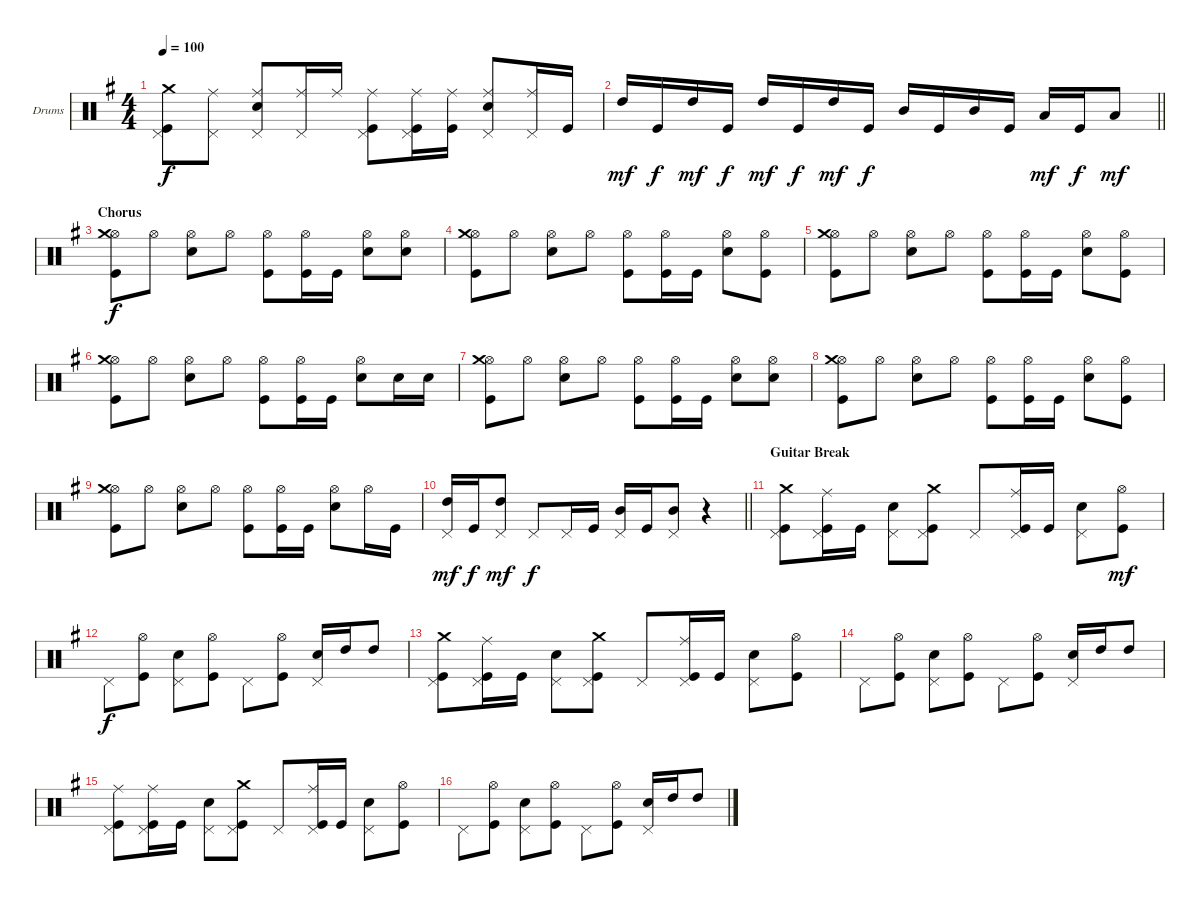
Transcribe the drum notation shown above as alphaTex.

\bracketExtendMode groupsimilarinstruments
\firstSystemTrackNameOrientation horizontal
\otherSystemsTrackNameOrientation horizontal
\track ("Барабаны" "Drums") {instrument percussion}
\staff {score}
\articulation defaults
\ts (4 4)
\tempo 100
\clef neutral
\ks eminor
("Crash medium (hit)" "Kick (hit)" "Pedal Hi-Hat (hit)").8{dy f} ("Pedal Hi-Hat (hit)" "Ride (middle)").8 ("Ride (middle)" "Snare (hit) 2" "Pedal Hi-Hat (hit)").8 ("Ride (middle)" "Pedal Hi-Hat (hit)").16 "Ride (middle)".16 ("Ride (middle)" "Kick (hit)" "Pedal Hi-Hat (hit)").8 ("Ride (middle)" "Pedal Hi-Hat (hit)" "Kick (hit)").16 ("Ride (middle)" "Kick (hit)").16 ("Ride (middle)" "Snare (hit) 2" "Pedal Hi-Hat (hit)").8 ("Ride (middle)" "Pedal Hi-Hat (hit)").16 "Kick (hit)".16 |
\barLineRight lightlight "High Tom (hit)".16{dy mf} "Kick (hit)".16{dy f} "High Tom (hit)".16{dy mf} "Kick (hit)".16{dy f} "High Tom (hit)".16{dy mf} "Kick (hit)".16{dy f} "High Tom (hit)".16{dy mf} "Kick (hit)".16{dy f} "Mid Tom (hit)".16 "Kick (hit)".16 "Mid Tom (hit)".16 "Kick (hit)".16 "Low Tom (hit)".16{dy mf} "Kick (hit)".16{dy f} "Low Tom (hit)".8{dy mf}
|
\section ("" "Chorus")
("Hi-Hat (open)" "Crash medium (hit)" "Kick (hit)").8{dy f} "Hi-Hat (open)".8 ("Hi-Hat (open)" "Snare (hit) 2").8 "Hi-Hat (open)".8 ("Hi-Hat (open)" "Kick (hit)").8 ("Hi-Hat (open)" "Kick (hit)").16 "Kick (hit)".16 ("Hi-Hat (open)" "Snare (hit) 2").8 ("Hi-Hat (open)" "Snare (hit) 2").8 |
("Hi-Hat (open)" "Crash medium (hit)" "Kick (hit)").8 "Hi-Hat (open)".8 ("Hi-Hat (open)" "Snare (hit) 2").8 "Hi-Hat (open)".8 ("Hi-Hat (open)" "Kick (hit)").8 ("Hi-Hat (open)" "Kick (hit)").16 "Kick (hit)".16 ("Hi-Hat (open)" "Snare (hit) 2").8 ("Hi-Hat (open)" "Kick (hit)").8 |
("Hi-Hat (open)" "Crash medium (hit)" "Kick (hit)").8 "Hi-Hat (open)".8 ("Hi-Hat (open)" "Snare (hit) 2").8 "Hi-Hat (open)".8 ("Hi-Hat (open)" "Kick (hit)").8 ("Hi-Hat (open)" "Kick (hit)").16 "Kick (hit)".16 ("Hi-Hat (open)" "Snare (hit) 2").8 ("Hi-Hat (open)" "Kick (hit)").8 |
("Hi-Hat (open)" "Crash medium (hit)" "Kick (hit)").8 "Hi-Hat (open)".8 ("Hi-Hat (open)" "Snare (hit) 2").8 "Hi-Hat (open)".8 ("Hi-Hat (open)" "Kick (hit)").8 ("Hi-Hat (open)" "Kick (hit)").16 "Kick (hit)".16 ("Hi-Hat (open)" "Snare (hit) 2").8 "Snare (hit) 2".16 "Snare (hit) 2".16 |
("Hi-Hat (open)" "Crash medium (hit)" "Kick (hit)").8 "Hi-Hat (open)".8 ("Hi-Hat (open)" "Snare (hit) 2").8 "Hi-Hat (open)".8 ("Hi-Hat (open)" "Kick (hit)").8 ("Hi-Hat (open)" "Kick (hit)").16 "Kick (hit)".16 ("Hi-Hat (open)" "Snare (hit) 2").8 ("Hi-Hat (open)" "Snare (hit) 2").8 |
("Hi-Hat (open)" "Crash medium (hit)" "Kick (hit)").8 "Hi-Hat (open)".8 ("Hi-Hat (open)" "Snare (hit) 2").8 "Hi-Hat (open)".8 ("Hi-Hat (open)" "Kick (hit)").8 ("Hi-Hat (open)" "Kick (hit)").16 "Kick (hit)".16 ("Hi-Hat (open)" "Snare (hit) 2").8 ("Hi-Hat (open)" "Kick (hit)").8 |
("Hi-Hat (open)" "Crash medium (hit)" "Kick (hit)").8 "Hi-Hat (open)".8 ("Hi-Hat (open)" "Snare (hit) 2").8 "Hi-Hat (open)".8 ("Hi-Hat (open)" "Kick (hit)").8 ("Hi-Hat (open)" "Kick (hit)").16 "Kick (hit)".16 ("Hi-Hat (open)" "Snare (hit) 2").8 "Hi-Hat (open)".16 "Kick (hit)".16 |
\barLineRight lightlight
("High Tom (hit)" "Pedal Hi-Hat (hit)").16{dy mf} "Kick (hit)".16{dy f} ("Pedal Hi-Hat (hit)" "High Tom (hit)").8{dy mf} "Pedal Hi-Hat (hit)".8{dy f} "Pedal Hi-Hat (hit)".16 "Kick (hit)".16 ("Mid Tom (hit)" "Pedal Hi-Hat (hit)").16 "Kick (hit)".16 ("Mid Tom (hit)" "Pedal Hi-Hat (hit)").8 r.4 |
\section ("" "Guitar Break")
("Kick (hit)" "Crash medium (hit)" "Pedal Hi-Hat (hit)").8 ("Kick (hit)" "Pedal Hi-Hat (hit)" "Ride (middle)").16 "Kick (hit)".16 ("Snare (hit) 2" "Pedal Hi-Hat (hit)").8 ("Kick (hit)" "Crash medium (hit)" "Pedal Hi-Hat (hit)").8 "Pedal Hi-Hat (hit)".8 ("Kick (hit)" "Ride (middle)" "Pedal Hi-Hat (hit)").16 "Kick (hit)".16 ("Snare (hit) 2" "Pedal Hi-Hat (hit)").8 ("Kick (hit)" "Hi-Hat (open)").8{dy mf} |
"Pedal Hi-Hat (hit)".8{dy f} ("Kick (hit)" "Hi-Hat (open)").8 ("Snare (hit) 2" "Pedal Hi-Hat (hit)").8 ("Kick (hit)" "Hi-Hat (open)").8 "Pedal Hi-Hat (hit)".8 ("Hi-Hat (open)" "Kick (hit)").8 ("Pedal Hi-Hat (hit)" "Snare (hit) 2").16 "High Tom (hit)".16 "High Tom (hit)".8 |
("Kick (hit)" "Crash medium (hit)" "Pedal Hi-Hat (hit)").8 ("Kick (hit)" "Pedal Hi-Hat (hit)" "Ride (middle)").16 "Kick (hit)".16 ("Snare (hit) 2" "Pedal Hi-Hat (hit)").8 ("Kick (hit)" "Crash medium (hit)" "Pedal Hi-Hat (hit)").8 "Pedal Hi-Hat (hit)".8 ("Kick (hit)" "Ride (middle)" "Pedal Hi-Hat (hit)").16 "Kick (hit)".16 ("Snare (hit) 2" "Pedal Hi-Hat (hit)").8 ("Kick (hit)" "Hi-Hat (open)").8 |
"Pedal Hi-Hat (hit)".8 ("Kick (hit)" "Hi-Hat (open)").8 ("Snare (hit) 2" "Pedal Hi-Hat (hit)").8 ("Kick (hit)" "Hi-Hat (open)").8 "Pedal Hi-Hat (hit)".8 ("Hi-Hat (open)" "Kick (hit)").8 ("Pedal Hi-Hat (hit)" "Snare (hit) 2").16 "High Tom (hit)".16 "High Tom (hit)".8 |
("Kick (hit)" "Ride (middle)" "Pedal Hi-Hat (hit)").8 ("Kick (hit)" "Pedal Hi-Hat (hit)" "Ride (middle)").16 "Kick (hit)".16 ("Snare (hit) 2" "Pedal Hi-Hat (hit)").8 ("Kick (hit)" "Crash medium (hit)" "Pedal Hi-Hat (hit)").8 "Pedal Hi-Hat (hit)".8 ("Kick (hit)" "Ride (middle)" "Pedal Hi-Hat (hit)").16 "Kick (hit)".16 ("Snare (hit) 2" "Pedal Hi-Hat (hit)").8 ("Kick (hit)" "Hi-Hat (open)").8 |
"Pedal Hi-Hat (hit)".8 ("Kick (hit)" "Hi-Hat (open)").8 ("Snare (hit) 2" "Pedal Hi-Hat (hit)").8 ("Kick (hit)" "Hi-Hat (open)").8 "Pedal Hi-Hat (hit)".8 ("Hi-Hat (open)" "Kick (hit)").8 ("Pedal Hi-Hat (hit)" "Snare (hit) 2").16 "High Tom (hit)".16 "High Tom (hit)".8
